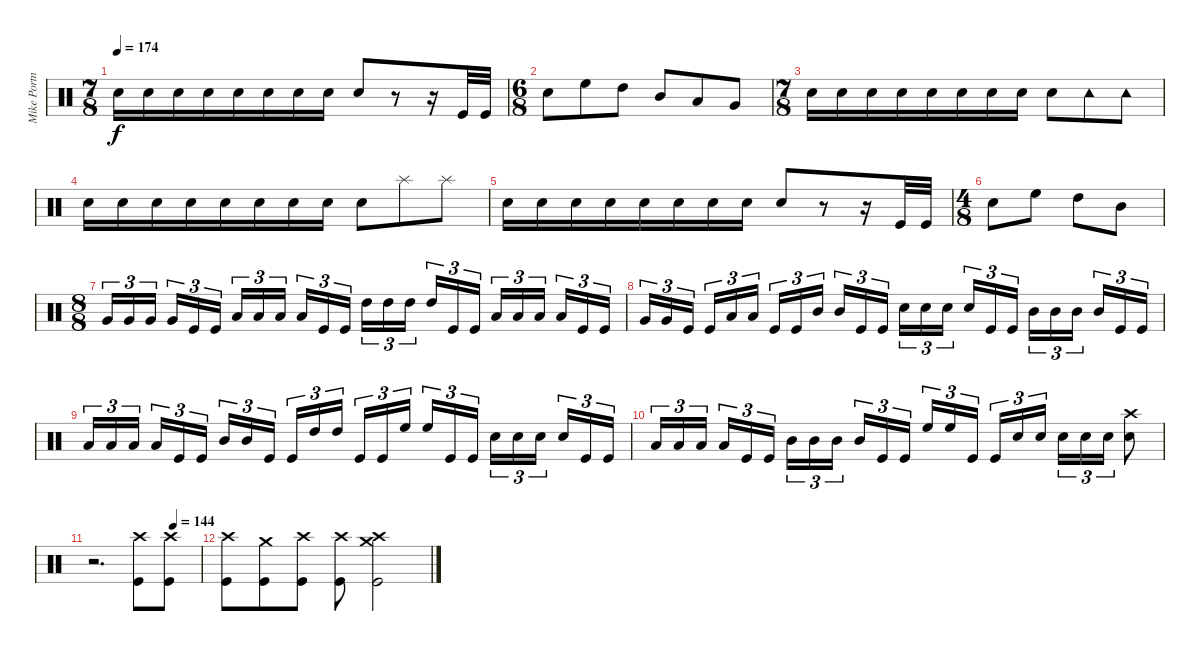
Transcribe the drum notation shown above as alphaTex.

\track ("Mike Portnoy" "Mike Portn") {instrument percussion}
\staff {score}
\articulation defaults
\ts (7 8)
\tempo 174
\clef neutral
\ks c "Snare (hit) 2".16{dy f} "Snare (hit) 2".16 "Snare (hit) 2".16 "Snare (hit) 2".16 "Snare (hit) 2".16 "Snare (hit) 2".16 "Snare (hit) 2".16 "Snare (hit) 2".16 "Snare (hit) 2".8
r.8 r.16 "Kick (hit)".32 "Kick (hit)".32 |
\ts (6 8)
"Snare (hit) 2".8 "High Floor Tom (hit)".8 "High Tom (hit)".8 "Mid Tom (hit)".8 "Low Tom (hit)".8 "Very Low Tom (hit)".8 |
\ts (7 8)
"Snare (hit) 2".16 "Snare (hit) 2".16 "Snare (hit) 2".16 "Snare (hit) 2".16 "Snare (hit) 2".16 "Snare (hit) 2".16 "Snare (hit) 2".16 "Snare (hit) 2".16 "Snare (hit) 2".8 "Tambourine (hit)".8 "Tambourine (hit)".8 |
"Snare (hit) 2".16 "Snare (hit) 2".16 "Snare (hit) 2".16 "Snare (hit) 2".16 "Snare (hit) 2".16 "Snare (hit) 2".16 "Snare (hit) 2".16 "Snare (hit) 2".16 "Snare (hit) 2".8 "Splash (hit)".8 "Splash (hit)".8 |
"Snare (hit) 2".16 "Snare (hit) 2".16 "Snare (hit) 2".16 "Snare (hit) 2".16 "Snare (hit) 2".16 "Snare (hit) 2".16 "Snare (hit) 2".16 "Snare (hit) 2".16 "Snare (hit) 2".8 r.8 r.16 "Kick (hit)".32 "Kick (hit)".32 |
\ts (4 8)
"Snare (hit) 2".8 "High Floor Tom (hit)".8 "High Tom (hit)".8 "Mid Tom (hit)".8 |
\ts (8 8)
"Very Low Tom (hit)".16{tu (3 2)} "Very Low Tom (hit)".16{tu (3 2)} "Very Low Tom (hit)".16{tu (3 2)} "Very Low Tom (hit)".16{tu (3 2)} "Kick (hit)".16{tu (3 2)} "Kick (hit)".16{tu (3 2)} "Low Tom (hit)".16{tu (3 2)} "Low Tom (hit)".16{tu (3 2)} "Low Tom (hit)".16{tu (3 2)} "Low Tom (hit)".16{tu (3 2)} "Kick (hit)".16{tu (3 2)} "Kick (hit)".16{tu (3 2)} "High Tom (hit)".16{tu (3 2)} "High Tom (hit)".16{tu (3 2)} "High Tom (hit)".16{tu (3 2)} "High Tom (hit)".16{tu (3 2)} "Kick (hit)".16{tu (3 2)} "Kick (hit)".16{tu (3 2)} "Low Tom (hit)".16{tu (3 2)} "Low Tom (hit)".16{tu (3 2)} "Low Tom (hit)".16{tu (3 2)} "Low Tom (hit)".16{tu (3 2)} "Kick (hit)".16{tu (3 2)} "Kick (hit)".16{tu (3 2)} |
"Very Low Tom (hit)".16{tu (3 2)} "Very Low Tom (hit)".16{tu (3 2)} "Kick (hit)".16{tu (3 2)} "Kick (hit)".16{tu (3 2)} "Low Tom (hit)".16{tu (3 2)} "Low Tom (hit)".16{tu (3 2)} "Kick (hit)".16{tu (3 2)} "Kick (hit)".16{tu (3 2)} "Mid Tom (hit)".16{tu (3 2)} "Mid Tom (hit)".16{tu (3 2)} "Kick (hit)".16{tu (3 2)} "Kick (hit)".16{tu (3 2)} "Snare (hit) 2".16{tu (3 2)} "Snare (hit) 2".16{tu (3 2)} "Snare (hit) 2".16{tu (3 2)} "Snare (hit) 2".16{tu (3 2)} "Kick (hit)".16{tu (3 2)} "Kick (hit)".16{tu (3 2)} "Mid Tom (hit)".16{tu (3 2)} "Mid Tom (hit)".16{tu (3 2)} "Mid Tom (hit)".16{tu (3 2)} "Mid Tom (hit)".16{tu (3 2)} "Kick (hit)".16{tu (3 2)} "Kick (hit)".16{tu (3 2)} |
"Low Tom (hit)".16{tu (3 2)} "Low Tom (hit)".16{tu (3 2)} "Low Tom (hit)".16{tu (3 2)} "Low Tom (hit)".16{tu (3 2)} "Kick (hit)".16{tu (3 2)} "Kick (hit)".16{tu (3 2)} "Mid Tom (hit)".16{tu (3 2)} "Mid Tom (hit)".16{tu (3 2)} "Kick (hit)".16{tu (3 2)} "Kick (hit)".16{tu (3 2)} "High Tom (hit)".16{tu (3 2)} "High Tom (hit)".16{tu (3 2)} "Kick (hit)".16{tu (3 2)} "Kick (hit)".16{tu (3 2)} "High Floor Tom (hit)".16{tu (3 2)} "High Floor Tom (hit)".16{tu (3 2)} "Kick (hit)".16{tu (3 2)} "Kick (hit)".16{tu (3 2)} "Snare (hit) 2".16{tu (3 2)} "Snare (hit) 2".16{tu (3 2)} "Snare (hit) 2".16{tu (3 2)} "Snare (hit) 2".16{tu (3 2)} "Kick (hit)".16{tu (3 2)} "Kick (hit)".16{tu (3 2)} |
"Low Tom (hit)".16{tu (3 2)} "Low Tom (hit)".16{tu (3 2)} "Low Tom (hit)".16{tu (3 2)} "Low Tom (hit)".16{tu (3 2)} "Kick (hit)".16{tu (3 2)} "Kick (hit)".16{tu (3 2)} "Mid Tom (hit)".16{tu (3 2)} "Mid Tom (hit)".16{tu (3 2)} "Mid Tom (hit)".16{tu (3 2)} "Mid Tom (hit)".16{tu (3 2)} "Kick (hit)".16{tu (3 2)} "Kick (hit)".16{tu (3 2)} "High Floor Tom (hit)".16{tu (3 2)} "High Floor Tom (hit)".16{tu (3 2)} "Kick (hit)".16{tu (3 2)} "Kick (hit)".16{tu (3 2)} "Snare (hit) 2".16{tu (3 2)} "Snare (hit) 2".16{tu (3 2)} "Snare (hit) 2".16{tu (3 2)} "Snare (hit) 2".16{tu (3 2)} "Snare (hit) 2".16{tu (3 2)} ("Snare (hit) 2" "Crash high (hit)").8 |
\tempo (144 0.75)
r.2{d} ("Crash high (hit)" "Kick (hit)").8 ("Crash high (hit)" "Kick (hit)").8 |
("Crash high (hit)" "Kick (hit)").8 ("Crash medium (hit)" "Kick (hit)").8 ("Crash high (hit)" "Kick (hit)").8 ("Crash high (hit)" "Kick (hit)").8 ("Crash high (hit)" "Crash medium (hit)" "Kick (hit)").2
